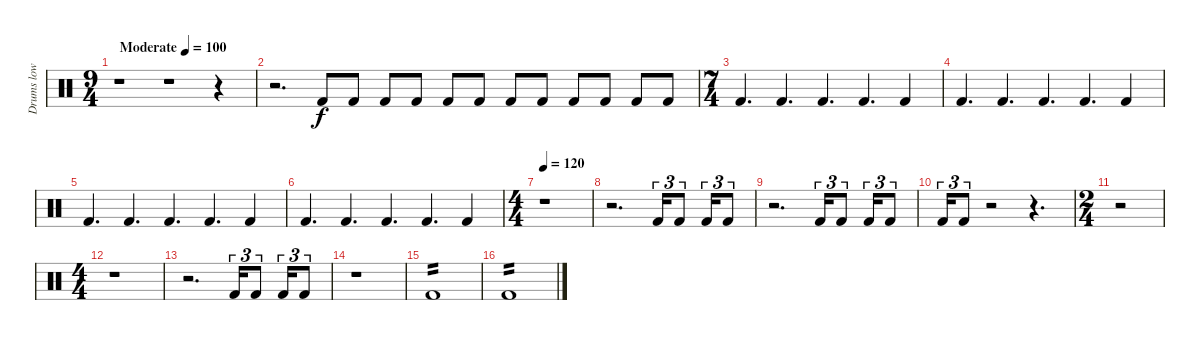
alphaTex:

\track ("Drums low" "Drums low") {instrument percussion}
\staff {score}
\articulation defaults
\ts (9 4)
\tempo (100 "Moderate")
\clef neutral
\ks c
r.1{dy f} r.1 r.4 |
r.2{d} "Kick (hit) 2".8 "Kick (hit) 2".8 "Kick (hit) 2".8 "Kick (hit) 2".8 "Kick (hit) 2".8 "Kick (hit) 2".8 "Kick (hit) 2".8 "Kick (hit) 2".8 "Kick (hit) 2".8 "Kick (hit) 2".8 "Kick (hit) 2".8 "Kick (hit) 2".8 |
\ts (7 4)
"Kick (hit) 2".4{d} "Kick (hit) 2".4{d} "Kick (hit) 2".4{d} "Kick (hit) 2".4{d} "Kick (hit) 2".4 |
"Kick (hit) 2".4{d} "Kick (hit) 2".4{d} "Kick (hit) 2".4{d} "Kick (hit) 2".4{d} "Kick (hit) 2".4 |
"Kick (hit) 2".4{d} "Kick (hit) 2".4{d} "Kick (hit) 2".4{d} "Kick (hit) 2".4{d} "Kick (hit) 2".4 |
"Kick (hit) 2".4{d} "Kick (hit) 2".4{d} "Kick (hit) 2".4{d} "Kick (hit) 2".4{d} "Kick (hit) 2".4 |
\ts (4 4)
\tempo 120
r.1 |
r.2{d} "Kick (hit) 2".16{tu (3 2)} "Kick (hit) 2".8{tu (3 2)} "Kick (hit) 2".16{tu (3 2)} "Kick (hit) 2".8{tu (3 2)} |
r.2{d} "Kick (hit) 2".16{tu (3 2)} "Kick (hit) 2".8{tu (3 2)} "Kick (hit) 2".16{tu (3 2)} "Kick (hit) 2".8{tu (3 2)} |
"Kick (hit) 2".16{tu (3 2)} "Kick (hit) 2".8{tu (3 2)} r.2 r.4{d} |
\ts (2 4)
r.2 |
\ts (4 4)
r.1 |
r.2{d} "Kick (hit) 2".16{tu (3 2)} "Kick (hit) 2".8{tu (3 2)} "Kick (hit) 2".16{tu (3 2)} "Kick (hit) 2".8{tu (3 2)} |
r.1 |
"Kick (hit) 2".1{tp 2} |
"Kick (hit) 2".1{tp 2}
